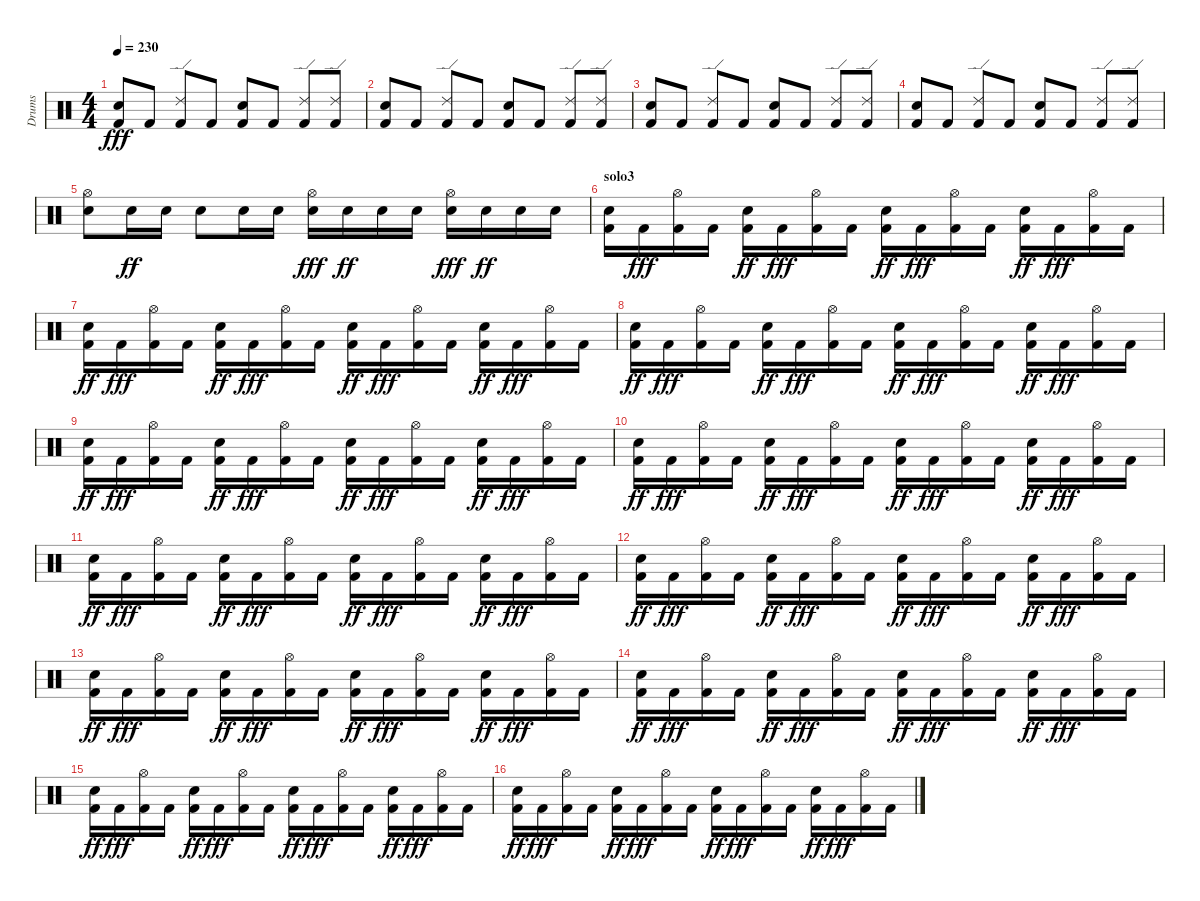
\track ("Drums" "Drums") {instrument percussion}
\staff {score}
\articulation defaults
\ts (4 4)
\tempo 230
\clef neutral
\ks c
("Electric Snare (hit)" "Kick (hit) 2").8{dy fff} "Kick (hit) 2".8 ("Ride (edge) 2" "Kick (hit) 2").8 "Kick (hit) 2".8 ("Electric Snare (hit)" "Kick (hit) 2").8 "Kick (hit) 2".8 ("Ride (edge) 2" "Kick (hit) 2").8 ("Ride (edge) 2" "Kick (hit) 2").8 |
("Electric Snare (hit)" "Kick (hit) 2").8 "Kick (hit) 2".8 ("Ride (edge) 2" "Kick (hit) 2").8 "Kick (hit) 2".8 ("Electric Snare (hit)" "Kick (hit) 2").8 "Kick (hit) 2".8 ("Ride (edge) 2" "Kick (hit) 2").8 ("Ride (edge) 2" "Kick (hit) 2").8 |
("Electric Snare (hit)" "Kick (hit) 2").8 "Kick (hit) 2".8 ("Ride (edge) 2" "Kick (hit) 2").8 "Kick (hit) 2".8 ("Electric Snare (hit)" "Kick (hit) 2").8 "Kick (hit) 2".8 ("Ride (edge) 2" "Kick (hit) 2").8 ("Ride (edge) 2" "Kick (hit) 2").8 |
("Electric Snare (hit)" "Kick (hit) 2").8 "Kick (hit) 2".8 ("Ride (edge) 2" "Kick (hit) 2").8 "Kick (hit) 2".8 ("Electric Snare (hit)" "Kick (hit) 2").8 "Kick (hit) 2".8 ("Ride (edge) 2" "Kick (hit) 2").8 ("Ride (edge) 2" "Kick (hit) 2").8 |
("Electric Snare (hit)" "Hi-Hat (open)").8 "Electric Snare (hit)".16{dy ff} "Electric Snare (hit)".16 "Electric Snare (hit)".8 "Electric Snare (hit)".16 "Electric Snare (hit)".16 ("Electric Snare (hit)" "Hi-Hat (open)").16{dy fff} "Electric Snare (hit)".16{dy ff} "Electric Snare (hit)".16 "Electric Snare (hit)".16 ("Electric Snare (hit)" "Hi-Hat (open)").16{dy fff} "Electric Snare (hit)".16{dy ff} "Electric Snare (hit)".16 "Electric Snare (hit)".16 |
\section ("" "solo3")
("Kick (hit) 2" "Electric Snare (hit)").16 "Kick (hit) 2".16{dy fff} ("Kick (hit) 2" "Hi-Hat (open)").16 "Kick (hit) 2".16 ("Kick (hit) 2" "Electric Snare (hit)").16{dy ff} "Kick (hit) 2".16{dy fff} ("Kick (hit) 2" "Hi-Hat (open)").16 "Kick (hit) 2".16 ("Kick (hit) 2" "Electric Snare (hit)").16{dy ff} "Kick (hit) 2".16{dy fff} ("Kick (hit) 2" "Hi-Hat (open)").16 "Kick (hit) 2".16 ("Kick (hit) 2" "Electric Snare (hit)").16{dy ff} "Kick (hit) 2".16{dy fff} ("Kick (hit) 2" "Hi-Hat (open)").16 "Kick (hit) 2".16 |
("Kick (hit) 2" "Electric Snare (hit)").16{dy ff} "Kick (hit) 2".16{dy fff} ("Kick (hit) 2" "Hi-Hat (open)").16 "Kick (hit) 2".16 ("Kick (hit) 2" "Electric Snare (hit)").16{dy ff} "Kick (hit) 2".16{dy fff} ("Kick (hit) 2" "Hi-Hat (open)").16 "Kick (hit) 2".16 ("Kick (hit) 2" "Electric Snare (hit)").16{dy ff} "Kick (hit) 2".16{dy fff} ("Kick (hit) 2" "Hi-Hat (open)").16 "Kick (hit) 2".16 ("Kick (hit) 2" "Electric Snare (hit)").16{dy ff} "Kick (hit) 2".16{dy fff} ("Kick (hit) 2" "Hi-Hat (open)").16 "Kick (hit) 2".16 |
("Kick (hit) 2" "Electric Snare (hit)").16{dy ff} "Kick (hit) 2".16{dy fff} ("Kick (hit) 2" "Hi-Hat (open)").16 "Kick (hit) 2".16 ("Kick (hit) 2" "Electric Snare (hit)").16{dy ff} "Kick (hit) 2".16{dy fff} ("Kick (hit) 2" "Hi-Hat (open)").16 "Kick (hit) 2".16 ("Kick (hit) 2" "Electric Snare (hit)").16{dy ff} "Kick (hit) 2".16{dy fff} ("Kick (hit) 2" "Hi-Hat (open)").16 "Kick (hit) 2".16 ("Kick (hit) 2" "Electric Snare (hit)").16{dy ff} "Kick (hit) 2".16{dy fff} ("Kick (hit) 2" "Hi-Hat (open)").16 "Kick (hit) 2".16 |
("Kick (hit) 2" "Electric Snare (hit)").16{dy ff} "Kick (hit) 2".16{dy fff} ("Kick (hit) 2" "Hi-Hat (open)").16 "Kick (hit) 2".16 ("Kick (hit) 2" "Electric Snare (hit)").16{dy ff} "Kick (hit) 2".16{dy fff} ("Kick (hit) 2" "Hi-Hat (open)").16 "Kick (hit) 2".16 ("Kick (hit) 2" "Electric Snare (hit)").16{dy ff} "Kick (hit) 2".16{dy fff} ("Kick (hit) 2" "Hi-Hat (open)").16 "Kick (hit) 2".16 ("Kick (hit) 2" "Electric Snare (hit)").16{dy ff} "Kick (hit) 2".16{dy fff} ("Kick (hit) 2" "Hi-Hat (open)").16 "Kick (hit) 2".16 |
("Kick (hit) 2" "Electric Snare (hit)").16{dy ff} "Kick (hit) 2".16{dy fff} ("Kick (hit) 2" "Hi-Hat (open)").16 "Kick (hit) 2".16 ("Kick (hit) 2" "Electric Snare (hit)").16{dy ff} "Kick (hit) 2".16{dy fff} ("Kick (hit) 2" "Hi-Hat (open)").16 "Kick (hit) 2".16 ("Kick (hit) 2" "Electric Snare (hit)").16{dy ff} "Kick (hit) 2".16{dy fff} ("Kick (hit) 2" "Hi-Hat (open)").16 "Kick (hit) 2".16 ("Kick (hit) 2" "Electric Snare (hit)").16{dy ff} "Kick (hit) 2".16{dy fff} ("Kick (hit) 2" "Hi-Hat (open)").16 "Kick (hit) 2".16 |
("Kick (hit) 2" "Electric Snare (hit)").16{dy ff} "Kick (hit) 2".16{dy fff} ("Kick (hit) 2" "Hi-Hat (open)").16 "Kick (hit) 2".16 ("Kick (hit) 2" "Electric Snare (hit)").16{dy ff} "Kick (hit) 2".16{dy fff} ("Kick (hit) 2" "Hi-Hat (open)").16 "Kick (hit) 2".16 ("Kick (hit) 2" "Electric Snare (hit)").16{dy ff} "Kick (hit) 2".16{dy fff} ("Kick (hit) 2" "Hi-Hat (open)").16 "Kick (hit) 2".16 ("Kick (hit) 2" "Electric Snare (hit)").16{dy ff} "Kick (hit) 2".16{dy fff} ("Kick (hit) 2" "Hi-Hat (open)").16 "Kick (hit) 2".16 |
("Kick (hit) 2" "Electric Snare (hit)").16{dy ff} "Kick (hit) 2".16{dy fff} ("Kick (hit) 2" "Hi-Hat (open)").16 "Kick (hit) 2".16 ("Kick (hit) 2" "Electric Snare (hit)").16{dy ff} "Kick (hit) 2".16{dy fff} ("Kick (hit) 2" "Hi-Hat (open)").16 "Kick (hit) 2".16 ("Kick (hit) 2" "Electric Snare (hit)").16{dy ff} "Kick (hit) 2".16{dy fff} ("Kick (hit) 2" "Hi-Hat (open)").16 "Kick (hit) 2".16 ("Kick (hit) 2" "Electric Snare (hit)").16{dy ff} "Kick (hit) 2".16{dy fff} ("Kick (hit) 2" "Hi-Hat (open)").16 "Kick (hit) 2".16 |
("Kick (hit) 2" "Electric Snare (hit)").16{dy ff} "Kick (hit) 2".16{dy fff} ("Kick (hit) 2" "Hi-Hat (open)").16 "Kick (hit) 2".16 ("Kick (hit) 2" "Electric Snare (hit)").16{dy ff} "Kick (hit) 2".16{dy fff} ("Kick (hit) 2" "Hi-Hat (open)").16 "Kick (hit) 2".16 ("Kick (hit) 2" "Electric Snare (hit)").16{dy ff} "Kick (hit) 2".16{dy fff} ("Kick (hit) 2" "Hi-Hat (open)").16 "Kick (hit) 2".16 ("Kick (hit) 2" "Electric Snare (hit)").16{dy ff} "Kick (hit) 2".16{dy fff} ("Kick (hit) 2" "Hi-Hat (open)").16 "Kick (hit) 2".16 |
("Kick (hit) 2" "Electric Snare (hit)").16{dy ff} "Kick (hit) 2".16{dy fff} ("Kick (hit) 2" "Hi-Hat (open)").16 "Kick (hit) 2".16 ("Kick (hit) 2" "Electric Snare (hit)").16{dy ff} "Kick (hit) 2".16{dy fff} ("Kick (hit) 2" "Hi-Hat (open)").16 "Kick (hit) 2".16 ("Kick (hit) 2" "Electric Snare (hit)").16{dy ff} "Kick (hit) 2".16{dy fff} ("Kick (hit) 2" "Hi-Hat (open)").16 "Kick (hit) 2".16 ("Kick (hit) 2" "Electric Snare (hit)").16{dy ff} "Kick (hit) 2".16{dy fff} ("Kick (hit) 2" "Hi-Hat (open)").16 "Kick (hit) 2".16 |
("Kick (hit) 2" "Electric Snare (hit)").16{dy ff} "Kick (hit) 2".16{dy fff} ("Kick (hit) 2" "Hi-Hat (open)").16 "Kick (hit) 2".16 ("Kick (hit) 2" "Electric Snare (hit)").16{dy ff} "Kick (hit) 2".16{dy fff} ("Kick (hit) 2" "Hi-Hat (open)").16 "Kick (hit) 2".16 ("Kick (hit) 2" "Electric Snare (hit)").16{dy ff} "Kick (hit) 2".16{dy fff} ("Kick (hit) 2" "Hi-Hat (open)").16 "Kick (hit) 2".16 ("Kick (hit) 2" "Electric Snare (hit)").16{dy ff} "Kick (hit) 2".16{dy fff} ("Kick (hit) 2" "Hi-Hat (open)").16 "Kick (hit) 2".16 |
("Kick (hit) 2" "Electric Snare (hit)").16{dy ff} "Kick (hit) 2".16{dy fff} ("Kick (hit) 2" "Hi-Hat (open)").16 "Kick (hit) 2".16 ("Kick (hit) 2" "Electric Snare (hit)").16{dy ff} "Kick (hit) 2".16{dy fff} ("Kick (hit) 2" "Hi-Hat (open)").16 "Kick (hit) 2".16 ("Kick (hit) 2" "Electric Snare (hit)").16{dy ff} "Kick (hit) 2".16{dy fff} ("Kick (hit) 2" "Hi-Hat (open)").16 "Kick (hit) 2".16 ("Kick (hit) 2" "Electric Snare (hit)").16{dy ff} "Kick (hit) 2".16{dy fff} ("Kick (hit) 2" "Hi-Hat (open)").16 "Kick (hit) 2".16
